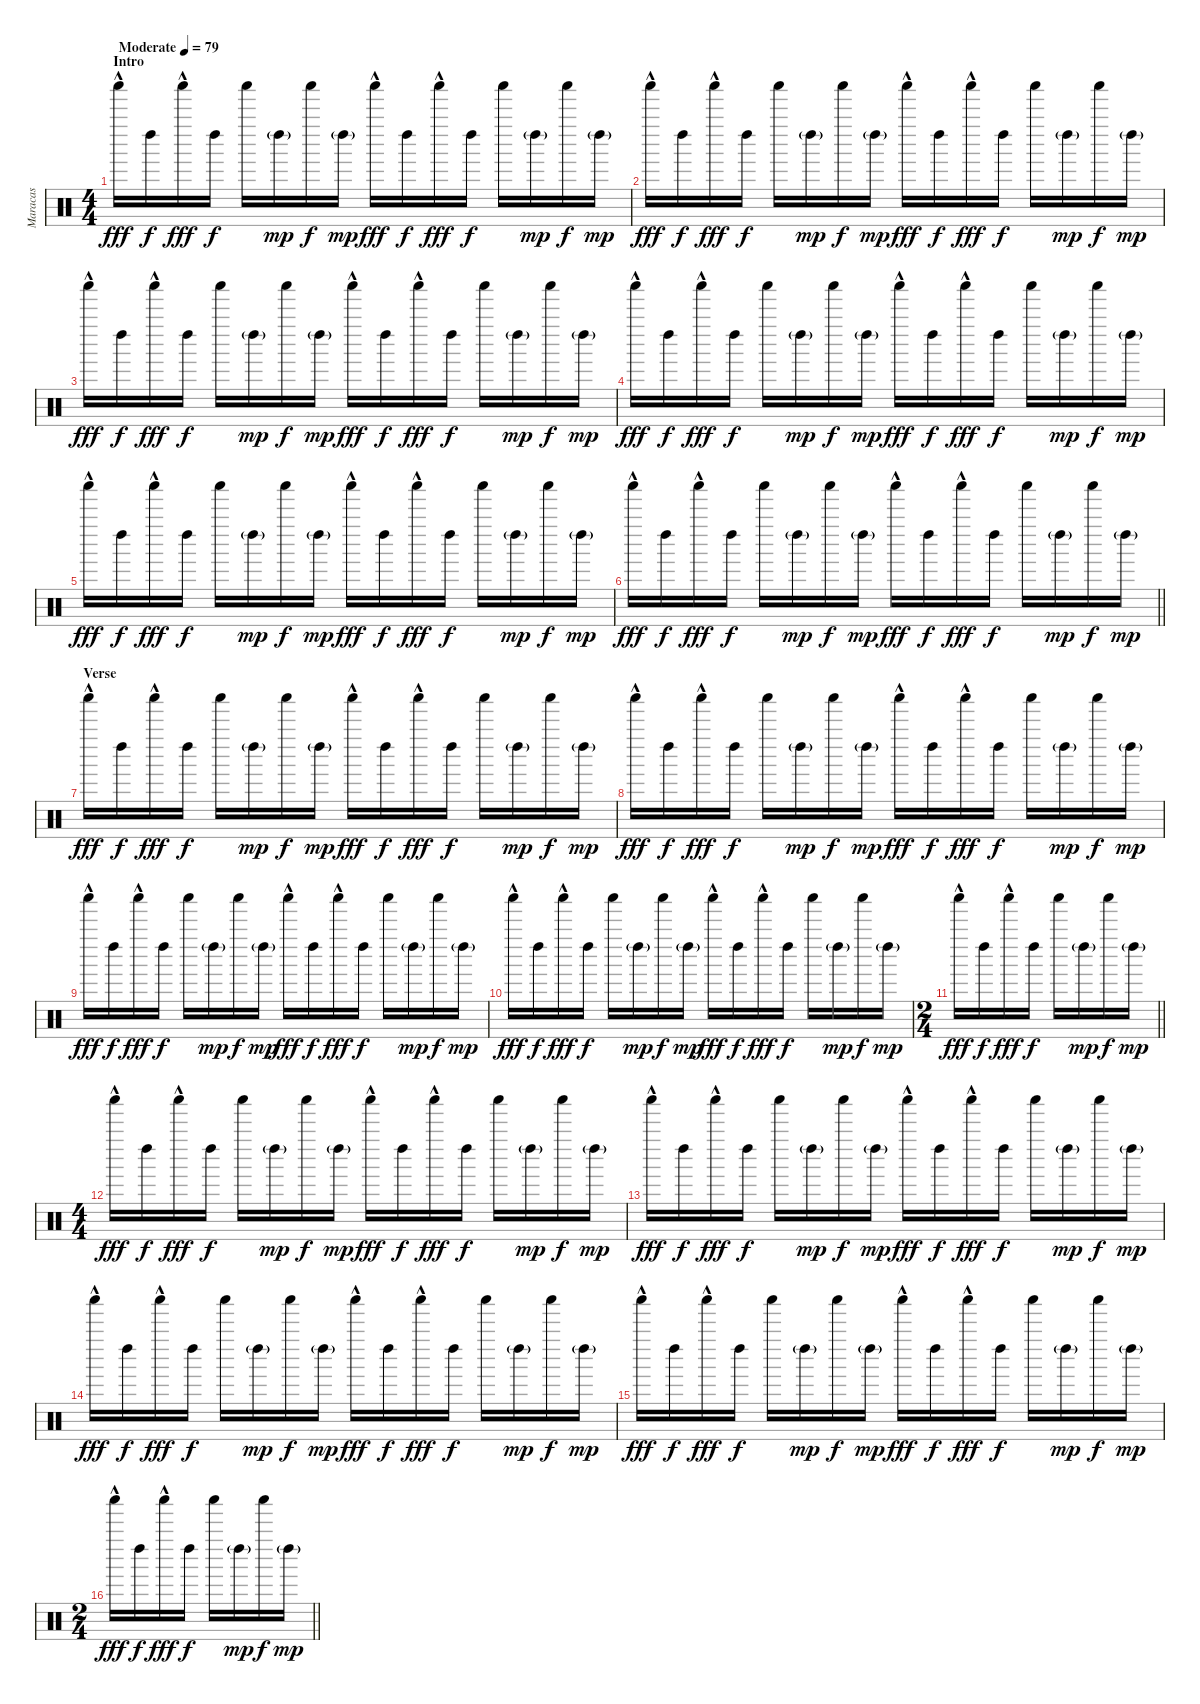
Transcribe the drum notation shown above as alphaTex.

\track ("Maracas" "Maracas") {instrument percussion}
\staff {score}
\articulation defaults
\ts (4 4)
\section ("" "Intro")
\tempo (79 "Moderate")
\clef neutral
\ks c "Shaker (hit)"{hac}.16{dy fff} "Left Maraca (hit)".16{dy f} "Shaker (hit)"{hac}.16{dy fff} "Left Maraca (hit)".16{dy f} "Shaker (hit)".16 "Left Maraca (hit)"{g}.16{dy mp} "Shaker (hit)".16{dy f} "Left Maraca (hit)"{g}.16{dy mp} "Shaker (hit)"{hac}.16{dy fff} "Left Maraca (hit)".16{dy f} "Shaker (hit)"{hac}.16{dy fff} "Left Maraca (hit)".16{dy f} "Shaker (hit)".16 "Left Maraca (hit)"{g}.16{dy mp} "Shaker (hit)".16{dy f} "Left Maraca (hit)"{g}.16{dy mp}
|
"Shaker (hit)"{hac}.16{dy fff} "Left Maraca (hit)".16{dy f} "Shaker (hit)"{hac}.16{dy fff} "Left Maraca (hit)".16{dy f} "Shaker (hit)".16 "Left Maraca (hit)"{g}.16{dy mp} "Shaker (hit)".16{dy f} "Left Maraca (hit)"{g}.16{dy mp} "Shaker (hit)"{hac}.16{dy fff} "Left Maraca (hit)".16{dy f} "Shaker (hit)"{hac}.16{dy fff} "Left Maraca (hit)".16{dy f} "Shaker (hit)".16 "Left Maraca (hit)"{g}.16{dy mp} "Shaker (hit)".16{dy f} "Left Maraca (hit)"{g}.16{dy mp} |
"Shaker (hit)"{hac}.16{dy fff} "Left Maraca (hit)".16{dy f} "Shaker (hit)"{hac}.16{dy fff} "Left Maraca (hit)".16{dy f} "Shaker (hit)".16 "Left Maraca (hit)"{g}.16{dy mp} "Shaker (hit)".16{dy f} "Left Maraca (hit)"{g}.16{dy mp} "Shaker (hit)"{hac}.16{dy fff} "Left Maraca (hit)".16{dy f} "Shaker (hit)"{hac}.16{dy fff} "Left Maraca (hit)".16{dy f} "Shaker (hit)".16 "Left Maraca (hit)"{g}.16{dy mp} "Shaker (hit)".16{dy f} "Left Maraca (hit)"{g}.16{dy mp} |
"Shaker (hit)"{hac}.16{dy fff} "Left Maraca (hit)".16{dy f} "Shaker (hit)"{hac}.16{dy fff} "Left Maraca (hit)".16{dy f} "Shaker (hit)".16 "Left Maraca (hit)"{g}.16{dy mp} "Shaker (hit)".16{dy f} "Left Maraca (hit)"{g}.16{dy mp} "Shaker (hit)"{hac}.16{dy fff} "Left Maraca (hit)".16{dy f} "Shaker (hit)"{hac}.16{dy fff} "Left Maraca (hit)".16{dy f} "Shaker (hit)".16 "Left Maraca (hit)"{g}.16{dy mp} "Shaker (hit)".16{dy f} "Left Maraca (hit)"{g}.16{dy mp} |
"Shaker (hit)"{hac}.16{dy fff} "Left Maraca (hit)".16{dy f} "Shaker (hit)"{hac}.16{dy fff} "Left Maraca (hit)".16{dy f} "Shaker (hit)".16 "Left Maraca (hit)"{g}.16{dy mp} "Shaker (hit)".16{dy f} "Left Maraca (hit)"{g}.16{dy mp} "Shaker (hit)"{hac}.16{dy fff} "Left Maraca (hit)".16{dy f} "Shaker (hit)"{hac}.16{dy fff} "Left Maraca (hit)".16{dy f} "Shaker (hit)".16 "Left Maraca (hit)"{g}.16{dy mp} "Shaker (hit)".16{dy f} "Left Maraca (hit)"{g}.16{dy mp} |
\barLineRight lightlight "Shaker (hit)"{hac}.16{dy fff} "Left Maraca (hit)".16{dy f} "Shaker (hit)"{hac}.16{dy fff} "Left Maraca (hit)".16{dy f} "Shaker (hit)".16 "Left Maraca (hit)"{g}.16{dy mp} "Shaker (hit)".16{dy f} "Left Maraca (hit)"{g}.16{dy mp} "Shaker (hit)"{hac}.16{dy fff} "Left Maraca (hit)".16{dy f} "Shaker (hit)"{hac}.16{dy fff} "Left Maraca (hit)".16{dy f} "Shaker (hit)".16 "Left Maraca (hit)"{g}.16{dy mp} "Shaker (hit)".16{dy f} "Left Maraca (hit)"{g}.16{dy mp}
|
\section ("" "Verse")
"Shaker (hit)"{hac}.16{dy fff} "Left Maraca (hit)".16{dy f} "Shaker (hit)"{hac}.16{dy fff} "Left Maraca (hit)".16{dy f} "Shaker (hit)".16 "Left Maraca (hit)"{g}.16{dy mp} "Shaker (hit)".16{dy f} "Left Maraca (hit)"{g}.16{dy mp} "Shaker (hit)"{hac}.16{dy fff} "Left Maraca (hit)".16{dy f} "Shaker (hit)"{hac}.16{dy fff} "Left Maraca (hit)".16{dy f} "Shaker (hit)".16 "Left Maraca (hit)"{g}.16{dy mp} "Shaker (hit)".16{dy f} "Left Maraca (hit)"{g}.16{dy mp} |
"Shaker (hit)"{hac}.16{dy fff} "Left Maraca (hit)".16{dy f} "Shaker (hit)"{hac}.16{dy fff} "Left Maraca (hit)".16{dy f} "Shaker (hit)".16 "Left Maraca (hit)"{g}.16{dy mp} "Shaker (hit)".16{dy f} "Left Maraca (hit)"{g}.16{dy mp} "Shaker (hit)"{hac}.16{dy fff} "Left Maraca (hit)".16{dy f} "Shaker (hit)"{hac}.16{dy fff} "Left Maraca (hit)".16{dy f} "Shaker (hit)".16 "Left Maraca (hit)"{g}.16{dy mp} "Shaker (hit)".16{dy f} "Left Maraca (hit)"{g}.16{dy mp} |
"Shaker (hit)"{hac}.16{dy fff} "Left Maraca (hit)".16{dy f} "Shaker (hit)"{hac}.16{dy fff} "Left Maraca (hit)".16{dy f} "Shaker (hit)".16 "Left Maraca (hit)"{g}.16{dy mp} "Shaker (hit)".16{dy f} "Left Maraca (hit)"{g}.16{dy mp} "Shaker (hit)"{hac}.16{dy fff} "Left Maraca (hit)".16{dy f} "Shaker (hit)"{hac}.16{dy fff} "Left Maraca (hit)".16{dy f} "Shaker (hit)".16 "Left Maraca (hit)"{g}.16{dy mp} "Shaker (hit)".16{dy f} "Left Maraca (hit)"{g}.16{dy mp} |
"Shaker (hit)"{hac}.16{dy fff} "Left Maraca (hit)".16{dy f} "Shaker (hit)"{hac}.16{dy fff} "Left Maraca (hit)".16{dy f} "Shaker (hit)".16 "Left Maraca (hit)"{g}.16{dy mp} "Shaker (hit)".16{dy f} "Left Maraca (hit)"{g}.16{dy mp} "Shaker (hit)"{hac}.16{dy fff} "Left Maraca (hit)".16{dy f} "Shaker (hit)"{hac}.16{dy fff} "Left Maraca (hit)".16{dy f} "Shaker (hit)".16 "Left Maraca (hit)"{g}.16{dy mp} "Shaker (hit)".16{dy f} "Left Maraca (hit)"{g}.16{dy mp} |
\ts (2 4)
\barLineRight lightlight "Shaker (hit)"{hac}.16{dy fff} "Left Maraca (hit)".16{dy f} "Shaker (hit)"{hac}.16{dy fff} "Left Maraca (hit)".16{dy f} "Shaker (hit)".16 "Left Maraca (hit)"{g}.16{dy mp} "Shaker (hit)".16{dy f} "Left Maraca (hit)"{g}.16{dy mp}
|
\ts (4 4)
\section ("" "")
"Shaker (hit)"{hac}.16{dy fff} "Left Maraca (hit)".16{dy f} "Shaker (hit)"{hac}.16{dy fff} "Left Maraca (hit)".16{dy f} "Shaker (hit)".16 "Left Maraca (hit)"{g}.16{dy mp} "Shaker (hit)".16{dy f} "Left Maraca (hit)"{g}.16{dy mp} "Shaker (hit)"{hac}.16{dy fff} "Left Maraca (hit)".16{dy f} "Shaker (hit)"{hac}.16{dy fff} "Left Maraca (hit)".16{dy f} "Shaker (hit)".16 "Left Maraca (hit)"{g}.16{dy mp} "Shaker (hit)".16{dy f} "Left Maraca (hit)"{g}.16{dy mp} |
"Shaker (hit)"{hac}.16{dy fff} "Left Maraca (hit)".16{dy f} "Shaker (hit)"{hac}.16{dy fff} "Left Maraca (hit)".16{dy f} "Shaker (hit)".16 "Left Maraca (hit)"{g}.16{dy mp} "Shaker (hit)".16{dy f} "Left Maraca (hit)"{g}.16{dy mp} "Shaker (hit)"{hac}.16{dy fff} "Left Maraca (hit)".16{dy f} "Shaker (hit)"{hac}.16{dy fff} "Left Maraca (hit)".16{dy f} "Shaker (hit)".16 "Left Maraca (hit)"{g}.16{dy mp} "Shaker (hit)".16{dy f} "Left Maraca (hit)"{g}.16{dy mp} |
"Shaker (hit)"{hac}.16{dy fff} "Left Maraca (hit)".16{dy f} "Shaker (hit)"{hac}.16{dy fff} "Left Maraca (hit)".16{dy f} "Shaker (hit)".16 "Left Maraca (hit)"{g}.16{dy mp} "Shaker (hit)".16{dy f} "Left Maraca (hit)"{g}.16{dy mp} "Shaker (hit)"{hac}.16{dy fff} "Left Maraca (hit)".16{dy f} "Shaker (hit)"{hac}.16{dy fff} "Left Maraca (hit)".16{dy f} "Shaker (hit)".16 "Left Maraca (hit)"{g}.16{dy mp} "Shaker (hit)".16{dy f} "Left Maraca (hit)"{g}.16{dy mp} |
"Shaker (hit)"{hac}.16{dy fff} "Left Maraca (hit)".16{dy f} "Shaker (hit)"{hac}.16{dy fff} "Left Maraca (hit)".16{dy f} "Shaker (hit)".16 "Left Maraca (hit)"{g}.16{dy mp} "Shaker (hit)".16{dy f} "Left Maraca (hit)"{g}.16{dy mp} "Shaker (hit)"{hac}.16{dy fff} "Left Maraca (hit)".16{dy f} "Shaker (hit)"{hac}.16{dy fff} "Left Maraca (hit)".16{dy f} "Shaker (hit)".16 "Left Maraca (hit)"{g}.16{dy mp} "Shaker (hit)".16{dy f} "Left Maraca (hit)"{g}.16{dy mp} |
\ts (2 4)
\barLineRight lightlight "Shaker (hit)"{hac}.16{dy fff} "Left Maraca (hit)".16{dy f} "Shaker (hit)"{hac}.16{dy fff} "Left Maraca (hit)".16{dy f} "Shaker (hit)".16 "Left Maraca (hit)"{g}.16{dy mp} "Shaker (hit)".16{dy f} "Left Maraca (hit)"{g}.16{dy mp}
